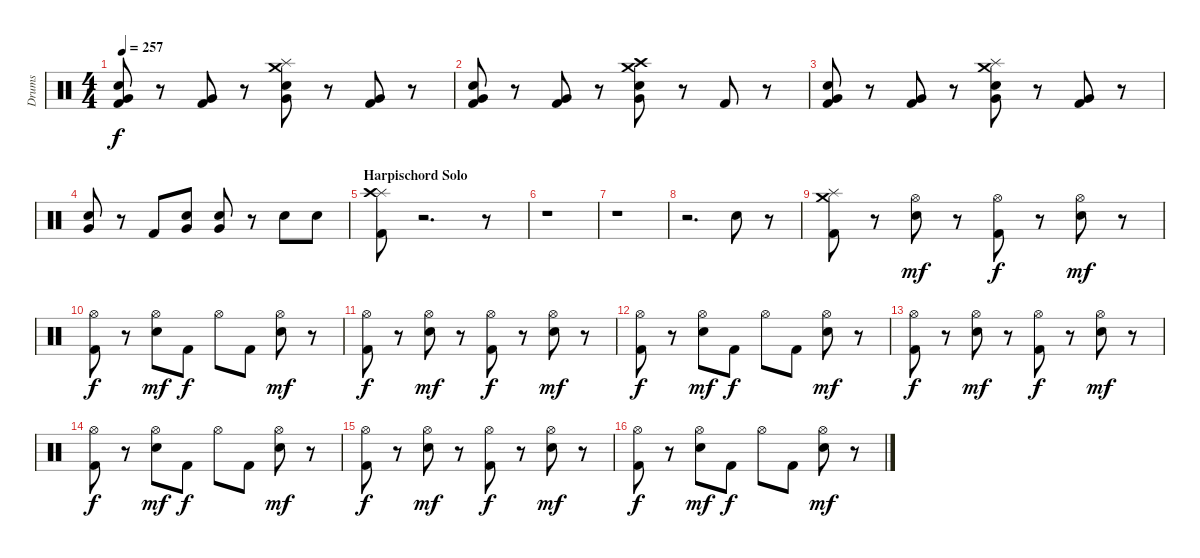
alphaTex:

\track ("Drums" "Drums") {instrument percussion}
\staff {score}
\articulation defaults
\ts (4 4)
\tempo 257
\clef neutral
\ks c
("Kick (hit) 2" "Very Low Tom (hit)" "Snare (hit) 2").8{dy f} r.8 ("Kick (hit) 2" "Very Low Tom (hit)").8 r.8 ("Splash (hit)" "Snare (hit) 2" "Crash medium (hit)" "Very Low Tom (hit)").8 r.8 ("Very Low Tom (hit)" "Kick (hit) 2").8 r.8 |
("Kick (hit) 2" "Very Low Tom (hit)" "Snare (hit) 2").8 r.8 ("Very Low Tom (hit)" "Kick (hit) 2").8 r.8 ("Snare (hit) 2" "Crash medium (hit)" "Very Low Tom (hit)" "Crash high (hit)").8 r.8 "Kick (hit) 2".8 r.8 |
("Kick (hit) 2" "Very Low Tom (hit)" "Snare (hit) 2").8 r.8 ("Kick (hit) 2" "Very Low Tom (hit)").8 r.8 ("Splash (hit)" "Snare (hit) 2" "Crash medium (hit)" "Very Low Tom (hit)").8 r.8 ("Very Low Tom (hit)" "Kick (hit) 2").8 r.8 |
("Snare (hit) 2" "Very Low Tom (hit)").8 r.8 "Kick (hit) 2".8 ("Snare (hit) 2" "Very Low Tom (hit)").8 ("Snare (hit) 2" "Very Low Tom (hit)").8 r.8 "Snare (hit) 2".8 "Snare (hit) 2".8 |
\section ("" "Harpischord Solo")
("Splash (hit)" "Kick (hit) 2" "Crash high (hit)").8 r.2{d} r.8 |
r.1 |
r.1 |
r.2{d} "Snare (hit) 2".8 r.8 |
("Splash (hit)" "Crash medium (hit)" "Kick (hit) 2").8 r.8 ("Snare (hit) 2" "Hi-Hat (open)").8{dy mf} r.8 ("Kick (hit) 2" "Hi-Hat (open)").8{dy f} r.8 ("Snare (hit) 2" "Hi-Hat (open)").8{dy mf} r.8 |
("Kick (hit) 2" "Hi-Hat (open)").8{dy f} r.8 ("Snare (hit) 2" "Hi-Hat (open)").8{dy mf} "Kick (hit) 2".8{dy f} "Hi-Hat (open)".8 "Kick (hit) 2".8 ("Snare (hit) 2" "Hi-Hat (open)").8{dy mf} r.8 |
("Kick (hit) 2" "Hi-Hat (open)").8{dy f} r.8 ("Snare (hit) 2" "Hi-Hat (open)").8{dy mf} r.8 ("Kick (hit) 2" "Hi-Hat (open)").8{dy f} r.8 ("Snare (hit) 2" "Hi-Hat (open)").8{dy mf} r.8 |
("Kick (hit) 2" "Hi-Hat (open)").8{dy f} r.8 ("Snare (hit) 2" "Hi-Hat (open)").8{dy mf} "Kick (hit) 2".8{dy f} "Hi-Hat (open)".8 "Kick (hit) 2".8 ("Snare (hit) 2" "Hi-Hat (open)").8{dy mf} r.8 |
("Kick (hit) 2" "Hi-Hat (open)").8{dy f} r.8 ("Snare (hit) 2" "Hi-Hat (open)").8{dy mf} r.8 ("Kick (hit) 2" "Hi-Hat (open)").8{dy f} r.8 ("Snare (hit) 2" "Hi-Hat (open)").8{dy mf} r.8 |
("Kick (hit) 2" "Hi-Hat (open)").8{dy f} r.8 ("Snare (hit) 2" "Hi-Hat (open)").8{dy mf} "Kick (hit) 2".8{dy f} "Hi-Hat (open)".8 "Kick (hit) 2".8 ("Snare (hit) 2" "Hi-Hat (open)").8{dy mf} r.8 |
("Kick (hit) 2" "Hi-Hat (open)").8{dy f} r.8 ("Snare (hit) 2" "Hi-Hat (open)").8{dy mf} r.8 ("Kick (hit) 2" "Hi-Hat (open)").8{dy f} r.8 ("Snare (hit) 2" "Hi-Hat (open)").8{dy mf} r.8 |
("Kick (hit) 2" "Hi-Hat (open)").8{dy f} r.8 ("Snare (hit) 2" "Hi-Hat (open)").8{dy mf} "Kick (hit) 2".8{dy f} "Hi-Hat (open)".8 "Kick (hit) 2".8 ("Snare (hit) 2" "Hi-Hat (open)").8{dy mf} r.8
